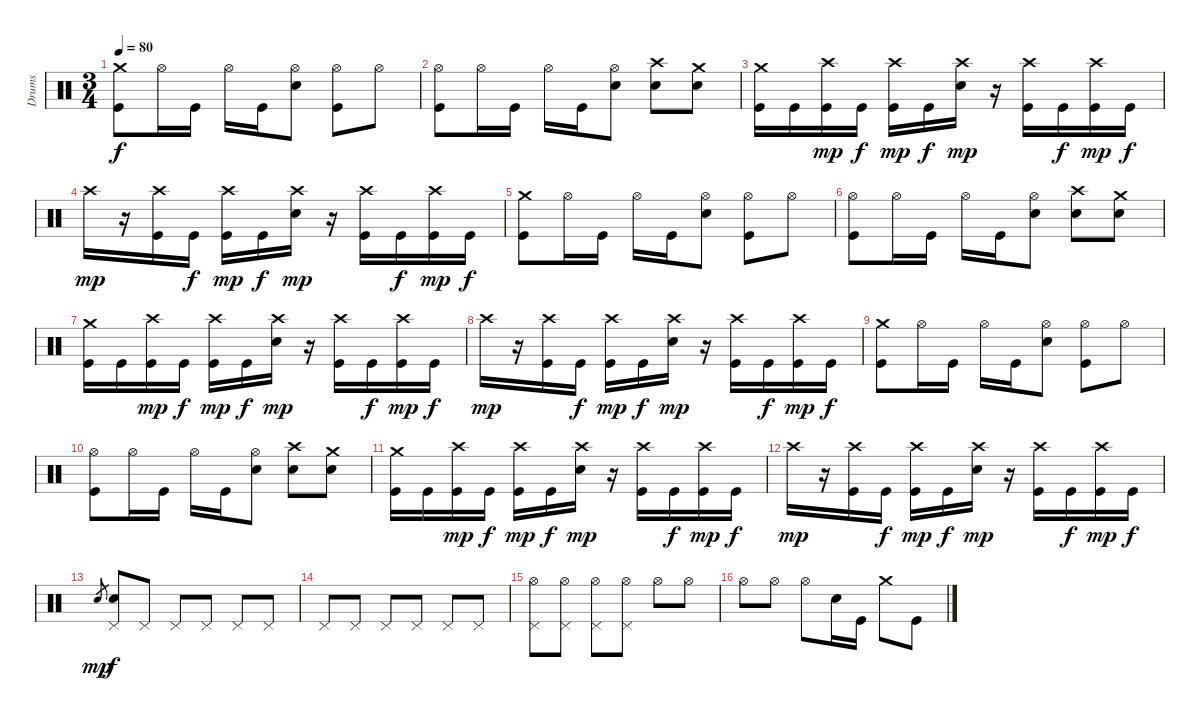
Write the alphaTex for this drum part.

\track ("Drums" "Drums") {instrument percussion}
\staff {score}
\articulation defaults
\ts (3 4)
\tempo 80
\clef neutral
\ks c
("Crash medium (hit)" "Kick (hit)").8{dy f} "Hi-Hat (open)".16 "Kick (hit)".16 "Hi-Hat (open)".16 "Kick (hit)".16 ("Hi-Hat (open)" "Electric Snare (hit)").8 ("Hi-Hat (open)" "Kick (hit)").8 "Hi-Hat (open)".8 |
("Hi-Hat (open)" "Kick (hit)").8 "Hi-Hat (open)".16 "Kick (hit)".16 "Hi-Hat (open)".16 "Kick (hit)".16 ("Hi-Hat (open)" "Electric Snare (hit)").8 ("Crash high (hit)" "Electric Snare (hit)").8 ("Crash medium (hit)" "Electric Snare (hit)").8 |
("Crash medium (hit)" "Kick (hit)").16 "Kick (hit)".16 ("Crash high (hit)" "Kick (hit)").16{dy mp} "Kick (hit)".16{dy f} ("Crash high (hit)" "Kick (hit)").16{dy mp} "Kick (hit)".16{dy f} ("Crash high (hit)" "Electric Snare (hit)").16{dy mp} r.16 ("Crash high (hit)" "Kick (hit)").16 "Kick (hit)".16{dy f} ("Crash high (hit)" "Kick (hit)").16{dy mp} "Kick (hit)".16{dy f} |
"Crash high (hit)".16{dy mp} r.16 ("Crash high (hit)" "Kick (hit)").16 "Kick (hit)".16{dy f} ("Crash high (hit)" "Kick (hit)").16{dy mp} "Kick (hit)".16{dy f} ("Crash high (hit)" "Electric Snare (hit)").16{dy mp} r.16 ("Crash high (hit)" "Kick (hit)").16 "Kick (hit)".16{dy f} ("Crash high (hit)" "Kick (hit)").16{dy mp} "Kick (hit)".16{dy f} |
("Crash medium (hit)" "Kick (hit)").8 "Hi-Hat (open)".16 "Kick (hit)".16 "Hi-Hat (open)".16 "Kick (hit)".16 ("Hi-Hat (open)" "Electric Snare (hit)").8 ("Hi-Hat (open)" "Kick (hit)").8 "Hi-Hat (open)".8 |
("Hi-Hat (open)" "Kick (hit)").8 "Hi-Hat (open)".16 "Kick (hit)".16 "Hi-Hat (open)".16 "Kick (hit)".16 ("Hi-Hat (open)" "Electric Snare (hit)").8 ("Crash high (hit)" "Electric Snare (hit)").8 ("Crash medium (hit)" "Electric Snare (hit)").8 |
("Crash medium (hit)" "Kick (hit)").16 "Kick (hit)".16 ("Crash high (hit)" "Kick (hit)").16{dy mp} "Kick (hit)".16{dy f} ("Crash high (hit)" "Kick (hit)").16{dy mp} "Kick (hit)".16{dy f} ("Crash high (hit)" "Electric Snare (hit)").16{dy mp} r.16 ("Crash high (hit)" "Kick (hit)").16 "Kick (hit)".16{dy f} ("Crash high (hit)" "Kick (hit)").16{dy mp} "Kick (hit)".16{dy f} |
"Crash high (hit)".16{dy mp} r.16 ("Crash high (hit)" "Kick (hit)").16 "Kick (hit)".16{dy f} ("Crash high (hit)" "Kick (hit)").16{dy mp} "Kick (hit)".16{dy f} ("Crash high (hit)" "Electric Snare (hit)").16{dy mp} r.16 ("Crash high (hit)" "Kick (hit)").16 "Kick (hit)".16{dy f} ("Crash high (hit)" "Kick (hit)").16{dy mp} "Kick (hit)".16{dy f} |
("Crash medium (hit)" "Kick (hit)").8 "Hi-Hat (open)".16 "Kick (hit)".16 "Hi-Hat (open)".16 "Kick (hit)".16 ("Hi-Hat (open)" "Electric Snare (hit)").8 ("Hi-Hat (open)" "Kick (hit)").8 "Hi-Hat (open)".8 |
("Hi-Hat (open)" "Kick (hit)").8 "Hi-Hat (open)".16 "Kick (hit)".16 "Hi-Hat (open)".16 "Kick (hit)".16 ("Hi-Hat (open)" "Electric Snare (hit)").8 ("Crash high (hit)" "Electric Snare (hit)").8 ("Crash medium (hit)" "Electric Snare (hit)").8 |
("Crash medium (hit)" "Kick (hit)").16 "Kick (hit)".16 ("Crash high (hit)" "Kick (hit)").16{dy mp} "Kick (hit)".16{dy f} ("Crash high (hit)" "Kick (hit)").16{dy mp} "Kick (hit)".16{dy f} ("Crash high (hit)" "Electric Snare (hit)").16{dy mp} r.16 ("Crash high (hit)" "Kick (hit)").16 "Kick (hit)".16{dy f} ("Crash high (hit)" "Kick (hit)").16{dy mp} "Kick (hit)".16{dy f} |
"Crash high (hit)".16{dy mp} r.16 ("Crash high (hit)" "Kick (hit)").16 "Kick (hit)".16{dy f} ("Crash high (hit)" "Kick (hit)").16{dy mp} "Kick (hit)".16{dy f} ("Crash high (hit)" "Electric Snare (hit)").16{dy mp} r.16 ("Crash high (hit)" "Kick (hit)").16 "Kick (hit)".16{dy f} ("Crash high (hit)" "Kick (hit)").16{dy mp} "Kick (hit)".16{dy f} |
"Electric Snare (hit)".8{gr dy mp} ("Pedal Hi-Hat (hit)" "Electric Snare (hit)").8{dy f} "Pedal Hi-Hat (hit)".8 "Pedal Hi-Hat (hit)".8 "Pedal Hi-Hat (hit)".8 "Pedal Hi-Hat (hit)".8 "Pedal Hi-Hat (hit)".8 |
"Pedal Hi-Hat (hit)".8 "Pedal Hi-Hat (hit)".8 "Pedal Hi-Hat (hit)".8 "Pedal Hi-Hat (hit)".8 "Pedal Hi-Hat (hit)".8 "Pedal Hi-Hat (hit)".8 |
("Pedal Hi-Hat (hit)" "Hi-Hat (open)").8 ("Pedal Hi-Hat (hit)" "Hi-Hat (open)").8 ("Pedal Hi-Hat (hit)" "Hi-Hat (open)").8 ("Pedal Hi-Hat (hit)" "Hi-Hat (open)").8 "Hi-Hat (open)".8 "Hi-Hat (open)".8 |
"Hi-Hat (open)".8 "Hi-Hat (open)".8 "Hi-Hat (open)".8 "Electric Snare (hit)".16 "Kick (hit)".16 "Crash medium (hit)".8 "Kick (hit)".8
